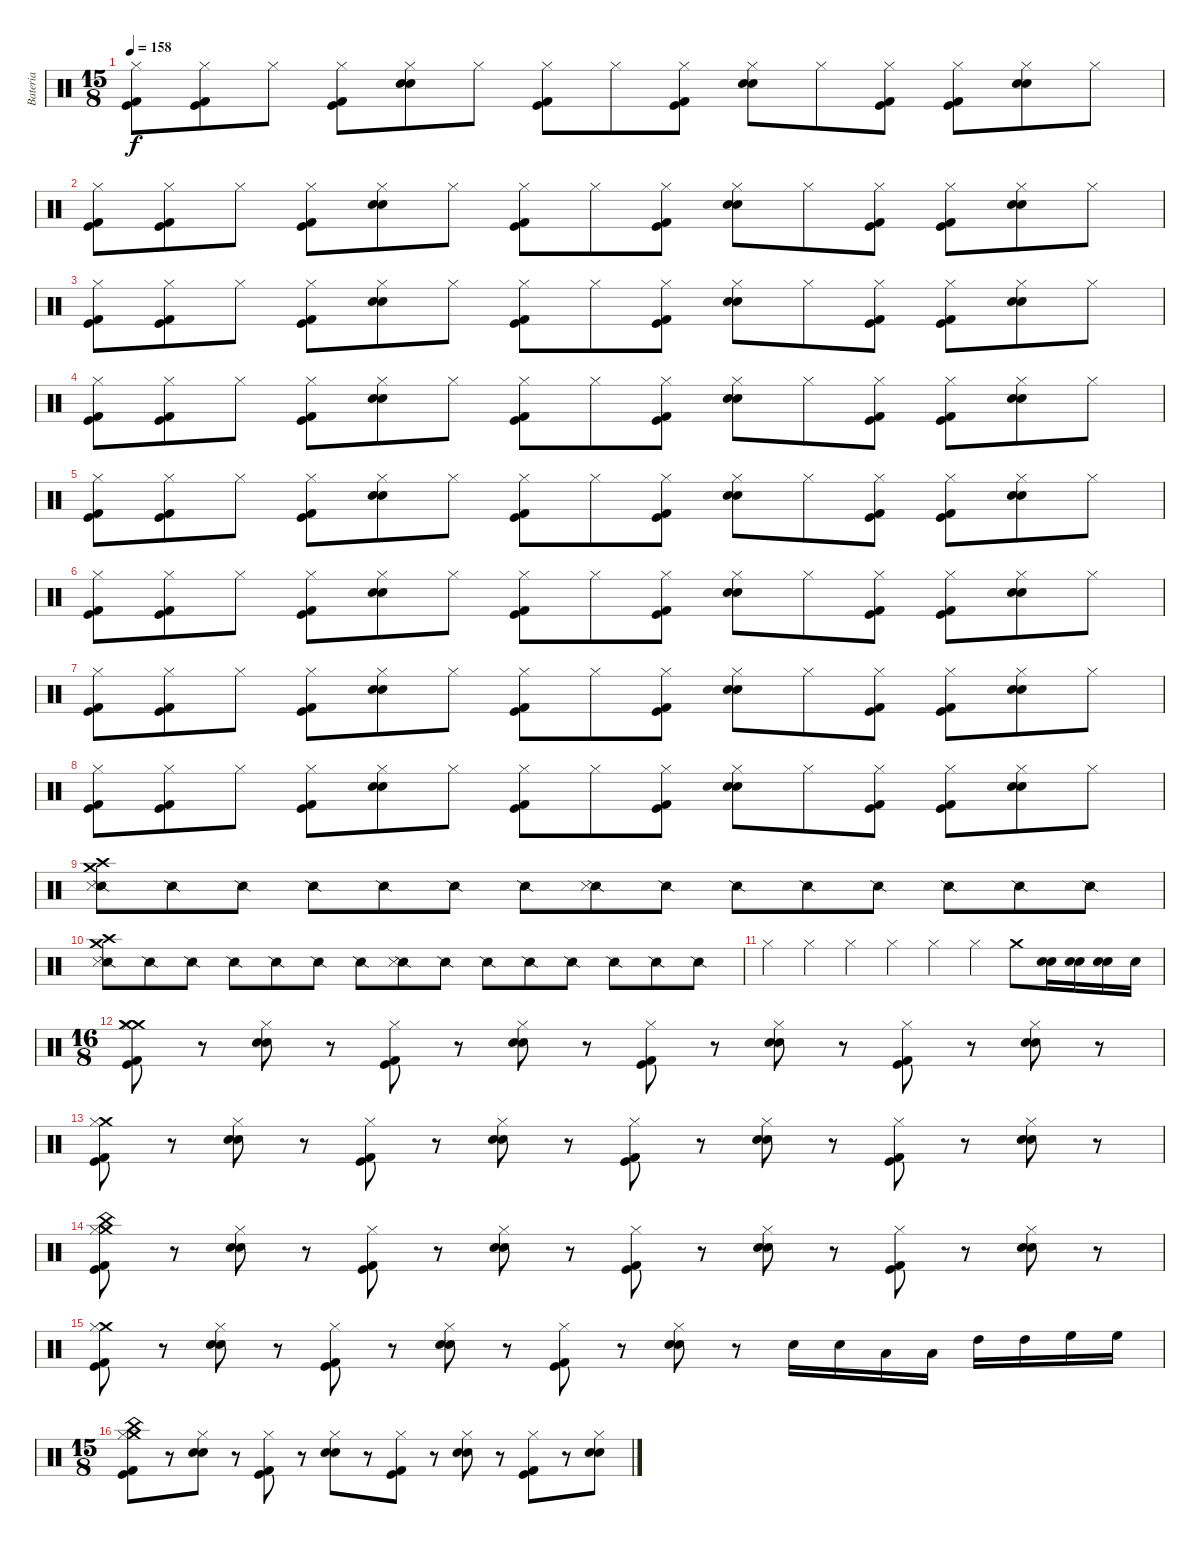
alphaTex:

\track ("Bateria" "Bateria") {instrument percussion}
\staff {score}
\articulation defaults
\ts (15 8)
\tempo 158
\clef neutral
\ks c
("Hi-Hat (closed)" "Kick (hit) 2" "Kick (hit)").8{dy f} ("Hi-Hat (closed)" "Kick (hit) 2" "Kick (hit)").8 "Hi-Hat (closed)".8 ("Hi-Hat (closed)" "Kick (hit) 2" "Kick (hit)").8 ("Hi-Hat (closed)" "Electric Snare (hit)" "Snare (hit) 2").8 "Hi-Hat (closed)".8 ("Hi-Hat (closed)" "Kick (hit) 2" "Kick (hit)").8 "Hi-Hat (closed)".8 ("Hi-Hat (closed)" "Kick (hit) 2" "Kick (hit)").8 ("Hi-Hat (closed)" "Electric Snare (hit)" "Snare (hit) 2").8 "Hi-Hat (closed)".8 ("Hi-Hat (closed)" "Kick (hit) 2" "Kick (hit)").8 ("Hi-Hat (closed)" "Kick (hit) 2" "Kick (hit)").8 ("Hi-Hat (closed)" "Electric Snare (hit)" "Snare (hit) 2").8 "Hi-Hat (closed)".8 |
("Hi-Hat (closed)" "Kick (hit) 2" "Kick (hit)").8 ("Hi-Hat (closed)" "Kick (hit) 2" "Kick (hit)").8 "Hi-Hat (closed)".8 ("Hi-Hat (closed)" "Kick (hit) 2" "Kick (hit)").8 ("Hi-Hat (closed)" "Electric Snare (hit)" "Snare (hit) 2").8 "Hi-Hat (closed)".8 ("Hi-Hat (closed)" "Kick (hit) 2" "Kick (hit)").8 "Hi-Hat (closed)".8 ("Hi-Hat (closed)" "Kick (hit) 2" "Kick (hit)").8 ("Hi-Hat (closed)" "Electric Snare (hit)" "Snare (hit) 2").8 "Hi-Hat (closed)".8 ("Hi-Hat (closed)" "Kick (hit) 2" "Kick (hit)").8 ("Hi-Hat (closed)" "Kick (hit) 2" "Kick (hit)").8 ("Hi-Hat (closed)" "Electric Snare (hit)" "Snare (hit) 2").8 "Hi-Hat (closed)".8 |
("Hi-Hat (closed)" "Kick (hit) 2" "Kick (hit)").8 ("Hi-Hat (closed)" "Kick (hit) 2" "Kick (hit)").8 "Hi-Hat (closed)".8 ("Hi-Hat (closed)" "Kick (hit) 2" "Kick (hit)").8 ("Hi-Hat (closed)" "Electric Snare (hit)" "Snare (hit) 2").8 "Hi-Hat (closed)".8 ("Hi-Hat (closed)" "Kick (hit) 2" "Kick (hit)").8 "Hi-Hat (closed)".8 ("Hi-Hat (closed)" "Kick (hit) 2" "Kick (hit)").8 ("Hi-Hat (closed)" "Electric Snare (hit)" "Snare (hit) 2").8 "Hi-Hat (closed)".8 ("Hi-Hat (closed)" "Kick (hit) 2" "Kick (hit)").8 ("Hi-Hat (closed)" "Kick (hit) 2" "Kick (hit)").8 ("Hi-Hat (closed)" "Electric Snare (hit)" "Snare (hit) 2").8 "Hi-Hat (closed)".8 |
("Hi-Hat (closed)" "Kick (hit) 2" "Kick (hit)").8 ("Hi-Hat (closed)" "Kick (hit) 2" "Kick (hit)").8 "Hi-Hat (closed)".8 ("Hi-Hat (closed)" "Kick (hit) 2" "Kick (hit)").8 ("Hi-Hat (closed)" "Electric Snare (hit)" "Snare (hit) 2").8 "Hi-Hat (closed)".8 ("Hi-Hat (closed)" "Kick (hit) 2" "Kick (hit)").8 "Hi-Hat (closed)".8 ("Hi-Hat (closed)" "Kick (hit) 2" "Kick (hit)").8 ("Hi-Hat (closed)" "Electric Snare (hit)" "Snare (hit) 2").8 "Hi-Hat (closed)".8 ("Hi-Hat (closed)" "Kick (hit) 2" "Kick (hit)").8 ("Hi-Hat (closed)" "Kick (hit) 2" "Kick (hit)").8 ("Hi-Hat (closed)" "Electric Snare (hit)" "Snare (hit) 2").8 "Hi-Hat (closed)".8 |
("Hi-Hat (closed)" "Kick (hit) 2" "Kick (hit)").8 ("Hi-Hat (closed)" "Kick (hit) 2" "Kick (hit)").8 "Hi-Hat (closed)".8 ("Hi-Hat (closed)" "Kick (hit) 2" "Kick (hit)").8 ("Hi-Hat (closed)" "Electric Snare (hit)" "Snare (hit) 2").8 "Hi-Hat (closed)".8 ("Hi-Hat (closed)" "Kick (hit) 2" "Kick (hit)").8 "Hi-Hat (closed)".8 ("Hi-Hat (closed)" "Kick (hit) 2" "Kick (hit)").8 ("Hi-Hat (closed)" "Electric Snare (hit)" "Snare (hit) 2").8 "Hi-Hat (closed)".8 ("Hi-Hat (closed)" "Kick (hit) 2" "Kick (hit)").8 ("Hi-Hat (closed)" "Kick (hit) 2" "Kick (hit)").8 ("Hi-Hat (closed)" "Electric Snare (hit)" "Snare (hit) 2").8 "Hi-Hat (closed)".8 |
("Hi-Hat (closed)" "Kick (hit) 2" "Kick (hit)").8 ("Hi-Hat (closed)" "Kick (hit) 2" "Kick (hit)").8 "Hi-Hat (closed)".8 ("Hi-Hat (closed)" "Kick (hit) 2" "Kick (hit)").8 ("Hi-Hat (closed)" "Electric Snare (hit)" "Snare (hit) 2").8 "Hi-Hat (closed)".8 ("Hi-Hat (closed)" "Kick (hit) 2" "Kick (hit)").8 "Hi-Hat (closed)".8 ("Hi-Hat (closed)" "Kick (hit) 2" "Kick (hit)").8 ("Hi-Hat (closed)" "Electric Snare (hit)" "Snare (hit) 2").8 "Hi-Hat (closed)".8 ("Hi-Hat (closed)" "Kick (hit) 2" "Kick (hit)").8 ("Hi-Hat (closed)" "Kick (hit) 2" "Kick (hit)").8 ("Hi-Hat (closed)" "Electric Snare (hit)" "Snare (hit) 2").8 "Hi-Hat (closed)".8 |
("Hi-Hat (closed)" "Kick (hit) 2" "Kick (hit)").8 ("Hi-Hat (closed)" "Kick (hit) 2" "Kick (hit)").8 "Hi-Hat (closed)".8 ("Hi-Hat (closed)" "Kick (hit) 2" "Kick (hit)").8 ("Hi-Hat (closed)" "Electric Snare (hit)" "Snare (hit) 2").8 "Hi-Hat (closed)".8 ("Hi-Hat (closed)" "Kick (hit) 2" "Kick (hit)").8 "Hi-Hat (closed)".8 ("Hi-Hat (closed)" "Kick (hit) 2" "Kick (hit)").8 ("Hi-Hat (closed)" "Electric Snare (hit)" "Snare (hit) 2").8 "Hi-Hat (closed)".8 ("Hi-Hat (closed)" "Kick (hit) 2" "Kick (hit)").8 ("Hi-Hat (closed)" "Kick (hit) 2" "Kick (hit)").8 ("Hi-Hat (closed)" "Electric Snare (hit)" "Snare (hit) 2").8 "Hi-Hat (closed)".8 |
("Hi-Hat (closed)" "Kick (hit) 2" "Kick (hit)").8 ("Hi-Hat (closed)" "Kick (hit) 2" "Kick (hit)").8 "Hi-Hat (closed)".8 ("Hi-Hat (closed)" "Kick (hit) 2" "Kick (hit)").8 ("Hi-Hat (closed)" "Electric Snare (hit)" "Snare (hit) 2").8 "Hi-Hat (closed)".8 ("Hi-Hat (closed)" "Kick (hit) 2" "Kick (hit)").8 "Hi-Hat (closed)".8 ("Hi-Hat (closed)" "Kick (hit) 2" "Kick (hit)").8 ("Hi-Hat (closed)" "Electric Snare (hit)" "Snare (hit) 2").8 "Hi-Hat (closed)".8 ("Hi-Hat (closed)" "Kick (hit) 2" "Kick (hit)").8 ("Hi-Hat (closed)" "Kick (hit) 2" "Kick (hit)").8 ("Hi-Hat (closed)" "Electric Snare (hit)" "Snare (hit) 2").8 "Hi-Hat (closed)".8 |
("Crash medium (hit)" "Snare (side stick) 2" "Snare (side stick) 3" "Crash high (hit)").8 "Snare (side stick) 2".8 "Snare (side stick) 2".8 "Snare (side stick) 2".8 "Snare (side stick) 2".8 "Snare (side stick) 2".8 "Snare (side stick) 2".8 ("Snare (side stick) 2" "Snare (side stick) 3").8 "Snare (side stick) 2".8 "Snare (side stick) 2".8 "Snare (side stick) 2".8 "Snare (side stick) 2".8 "Snare (side stick) 2".8 "Snare (side stick) 2".8 "Snare (side stick) 2".8 |
("Crash high (hit)" "Snare (side stick) 2" "Snare (side stick) 3" "Crash medium (hit)").8 "Snare (side stick) 2".8 "Snare (side stick) 2".8 "Snare (side stick) 2".8 "Snare (side stick) 2".8 "Snare (side stick) 2".8 "Snare (side stick) 2".8 ("Snare (side stick) 2" "Snare (side stick) 3").8 "Snare (side stick) 2".8 "Snare (side stick) 2".8 "Snare (side stick) 2".8 "Snare (side stick) 2".8 "Snare (side stick) 2".8 "Snare (side stick) 2".8 "Snare (side stick) 2".8 |
"Hi-Hat (closed)".4 "Hi-Hat (closed)".4 "Hi-Hat (closed)".4 "Hi-Hat (closed)".4 "Hi-Hat (closed)".4 "Hi-Hat (closed)".4 "Crash medium (hit)".8 ("Electric Snare (hit)" "Snare (hit) 2").16 ("Electric Snare (hit)" "Snare (hit) 2").16 ("Electric Snare (hit)" "Snare (hit) 2").16 "Electric Snare (hit)".16 |
\ts (16 8)
("Crash medium (hit)" "Hi-Hat (closed)" "Kick (hit) 2" "Kick (hit)" "Crash medium (hit)").8 r.8 ("Hi-Hat (closed)" "Electric Snare (hit)" "Snare (hit) 2").8 r.8 ("Hi-Hat (closed)" "Kick (hit) 2" "Kick (hit)").8 r.8 ("Hi-Hat (closed)" "Electric Snare (hit)" "Snare (hit) 2").8 r.8 ("Hi-Hat (closed)" "Kick (hit) 2" "Kick (hit)").8 r.8 ("Hi-Hat (closed)" "Electric Snare (hit)" "Snare (hit) 2").8 r.8 ("Hi-Hat (closed)" "Kick (hit) 2" "Kick (hit)").8 r.8 ("Hi-Hat (closed)" "Electric Snare (hit)" "Snare (hit) 2").8 r.8 |
("Crash medium (hit)" "Hi-Hat (closed)" "Kick (hit) 2" "Kick (hit)").8 r.8 ("Hi-Hat (closed)" "Electric Snare (hit)" "Snare (hit) 2").8 r.8 ("Hi-Hat (closed)" "Kick (hit) 2" "Kick (hit)").8 r.8 ("Hi-Hat (closed)" "Electric Snare (hit)" "Snare (hit) 2").8 r.8 ("Hi-Hat (closed)" "Kick (hit) 2" "Kick (hit)").8 r.8 ("Hi-Hat (closed)" "Electric Snare (hit)" "Snare (hit) 2").8 r.8 ("Hi-Hat (closed)" "Kick (hit) 2" "Kick (hit)").8 r.8 ("Hi-Hat (closed)" "Electric Snare (hit)" "Snare (hit) 2").8 r.8 |
("Crash medium (hit)" "Hi-Hat (closed)" "Kick (hit) 2" "Kick (hit)" "China (hit)").8 r.8 ("Hi-Hat (closed)" "Electric Snare (hit)" "Snare (hit) 2").8 r.8 ("Hi-Hat (closed)" "Kick (hit) 2" "Kick (hit)").8 r.8 ("Hi-Hat (closed)" "Electric Snare (hit)" "Snare (hit) 2").8 r.8 ("Hi-Hat (closed)" "Kick (hit) 2" "Kick (hit)").8 r.8 ("Hi-Hat (closed)" "Electric Snare (hit)" "Snare (hit) 2").8 r.8 ("Hi-Hat (closed)" "Kick (hit) 2" "Kick (hit)").8 r.8 ("Hi-Hat (closed)" "Electric Snare (hit)" "Snare (hit) 2").8 r.8 |
("Crash medium (hit)" "Hi-Hat (closed)" "Kick (hit) 2" "Kick (hit)").8 r.8 ("Hi-Hat (closed)" "Electric Snare (hit)" "Snare (hit) 2").8 r.8 ("Hi-Hat (closed)" "Kick (hit) 2" "Kick (hit)").8 r.8 ("Hi-Hat (closed)" "Electric Snare (hit)" "Snare (hit) 2").8 r.8 ("Hi-Hat (closed)" "Kick (hit) 2" "Kick (hit)").8 r.8 ("Hi-Hat (closed)" "Electric Snare (hit)" "Snare (hit) 2").8 r.8 "Electric Snare (hit)".16 "Electric Snare (hit)".16 "Low Tom (hit)".16 "Low Tom (hit)".16 "High Tom (hit)".16 "High Tom (hit)".16 "High Floor Tom (hit)".16 "High Floor Tom (hit)".16 |
\ts (15 8)
("Crash medium (hit)" "Hi-Hat (closed)" "Kick (hit) 2" "Kick (hit)" "China (hit)").8 r.8 ("Hi-Hat (closed)" "Electric Snare (hit)" "Snare (hit) 2").8 r.8 ("Hi-Hat (closed)" "Kick (hit) 2" "Kick (hit)").8 r.8 ("Hi-Hat (closed)" "Electric Snare (hit)" "Snare (hit) 2").8 r.8 ("Hi-Hat (closed)" "Kick (hit) 2" "Kick (hit)").8 r.8 ("Hi-Hat (closed)" "Electric Snare (hit)" "Snare (hit) 2").8 r.8 ("Hi-Hat (closed)" "Kick (hit) 2" "Kick (hit)").8 r.8 ("Hi-Hat (closed)" "Electric Snare (hit)" "Snare (hit) 2").8
